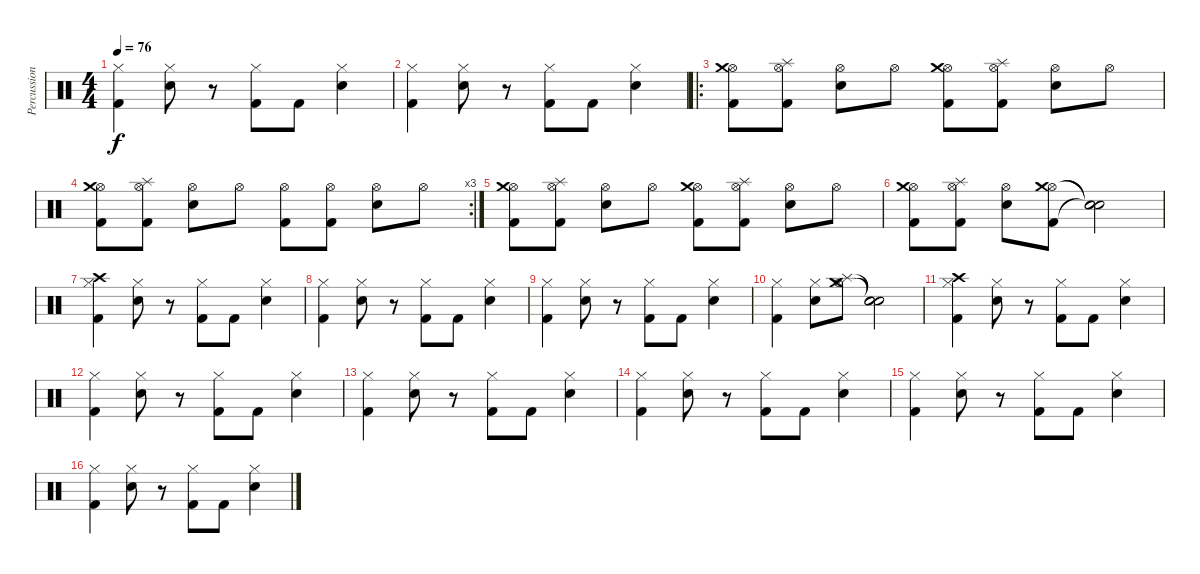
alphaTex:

\track ("Percussion" "Percussion") {instrument percussion}
\staff {score}
\articulation defaults
\ts (4 4)
\tempo 76
\clef neutral
\ks c
("Hi-Hat (closed)" "Kick (hit) 2").4{dy f} ("Electric Snare (hit)" "Hi-Hat (closed)").8 r.8 ("Hi-Hat (closed)" "Kick (hit) 2").8 "Kick (hit) 2".8 ("Electric Snare (hit)" "Hi-Hat (closed)").4 |
("Hi-Hat (closed)" "Kick (hit) 2").4 ("Electric Snare (hit)" "Hi-Hat (closed)").8 r.8 ("Hi-Hat (closed)" "Kick (hit) 2").8 "Kick (hit) 2".8 ("Electric Snare (hit)" "Hi-Hat (closed)").4 |
\ro
("Hi-Hat (open)" "Kick (hit) 2" "Crash medium (hit)").8 ("Hi-Hat (open)" "Kick (hit) 2" "Splash (hit)").8 ("Electric Snare (hit)" "Hi-Hat (open)").8 "Hi-Hat (open)".8 ("Hi-Hat (open)" "Kick (hit) 2" "Crash medium (hit)").8 ("Hi-Hat (open)" "Kick (hit) 2" "Splash (hit)").8 ("Electric Snare (hit)" "Hi-Hat (open)").8 "Hi-Hat (open)".8 |
\rc 3
("Hi-Hat (open)" "Kick (hit) 2" "Crash medium (hit)").8 ("Hi-Hat (open)" "Kick (hit) 2" "Splash (hit)").8 ("Electric Snare (hit)" "Hi-Hat (open)").8 "Hi-Hat (open)".8 ("Hi-Hat (open)" "Kick (hit) 2").8 ("Hi-Hat (open)" "Kick (hit) 2").8 ("Electric Snare (hit)" "Hi-Hat (open)").8 "Hi-Hat (open)".8 |
("Hi-Hat (open)" "Kick (hit) 2" "Crash medium (hit)").8 ("Hi-Hat (open)" "Kick (hit) 2" "Splash (hit)").8 ("Electric Snare (hit)" "Hi-Hat (open)").8 "Hi-Hat (open)".8 ("Hi-Hat (open)" "Kick (hit) 2" "Crash medium (hit)").8 ("Hi-Hat (open)" "Kick (hit) 2" "Splash (hit)").8 ("Electric Snare (hit)" "Hi-Hat (open)").8 "Hi-Hat (open)".8 |
("Hi-Hat (open)" "Kick (hit) 2" "Crash medium (hit)").8 ("Hi-Hat (open)" "Kick (hit) 2" "Splash (hit)").8 ("Electric Snare (hit)" "Hi-Hat (open)").8 ("Hi-Hat (open)" "Kick (hit) 2" "Crash medium (hit)").8 ("Snare (hit)"{t} "Snare (hit)"{t} "Snare (hit)"{t}).2 |
("Crash high (hit)" "Hi-Hat (closed)" "Kick (hit) 2").4 ("Electric Snare (hit)" "Hi-Hat (closed)").8 r.8 ("Hi-Hat (closed)" "Kick (hit) 2").8 "Kick (hit) 2".8 ("Electric Snare (hit)" "Hi-Hat (closed)").4 |
("Hi-Hat (closed)" "Kick (hit) 2").4 ("Electric Snare (hit)" "Hi-Hat (closed)").8 r.8 ("Hi-Hat (closed)" "Kick (hit) 2").8 "Kick (hit) 2".8 ("Electric Snare (hit)" "Hi-Hat (closed)").4 |
("Hi-Hat (closed)" "Kick (hit) 2").4 ("Electric Snare (hit)" "Hi-Hat (closed)").8 r.8 ("Hi-Hat (closed)" "Kick (hit) 2").8 "Kick (hit) 2".8 ("Electric Snare (hit)" "Hi-Hat (closed)").4 |
("Hi-Hat (closed)" "Kick (hit) 2").4 ("Electric Snare (hit)" "Hi-Hat (closed)").8 ("Hi-Hat (open)" "Splash (hit)" "Crash medium (hit)").8 ("Snare (hit)"{t} "Snare (hit)"{t} "Snare (hit)"{t}).2 |
("Crash high (hit)" "Hi-Hat (closed)" "Kick (hit) 2").4 ("Electric Snare (hit)" "Hi-Hat (closed)").8 r.8 ("Hi-Hat (closed)" "Kick (hit) 2").8 "Kick (hit) 2".8 ("Electric Snare (hit)" "Hi-Hat (closed)").4 |
("Hi-Hat (closed)" "Kick (hit) 2").4 ("Electric Snare (hit)" "Hi-Hat (closed)").8 r.8 ("Hi-Hat (closed)" "Kick (hit) 2").8 "Kick (hit) 2".8 ("Electric Snare (hit)" "Hi-Hat (closed)").4 |
("Hi-Hat (closed)" "Kick (hit) 2").4 ("Electric Snare (hit)" "Hi-Hat (closed)").8 r.8 ("Hi-Hat (closed)" "Kick (hit) 2").8 "Kick (hit) 2".8 ("Electric Snare (hit)" "Hi-Hat (closed)").4 |
("Hi-Hat (closed)" "Kick (hit) 2").4 ("Electric Snare (hit)" "Hi-Hat (closed)").8 r.8 ("Hi-Hat (closed)" "Kick (hit) 2").8 "Kick (hit) 2".8 ("Electric Snare (hit)" "Hi-Hat (closed)").4 |
("Hi-Hat (closed)" "Kick (hit) 2").4 ("Electric Snare (hit)" "Hi-Hat (closed)").8 r.8 ("Hi-Hat (closed)" "Kick (hit) 2").8 "Kick (hit) 2".8 ("Electric Snare (hit)" "Hi-Hat (closed)").4 |
("Hi-Hat (closed)" "Kick (hit) 2").4 ("Electric Snare (hit)" "Hi-Hat (closed)").8 r.8 ("Hi-Hat (closed)" "Kick (hit) 2").8 "Kick (hit) 2".8 ("Electric Snare (hit)" "Hi-Hat (closed)").4
